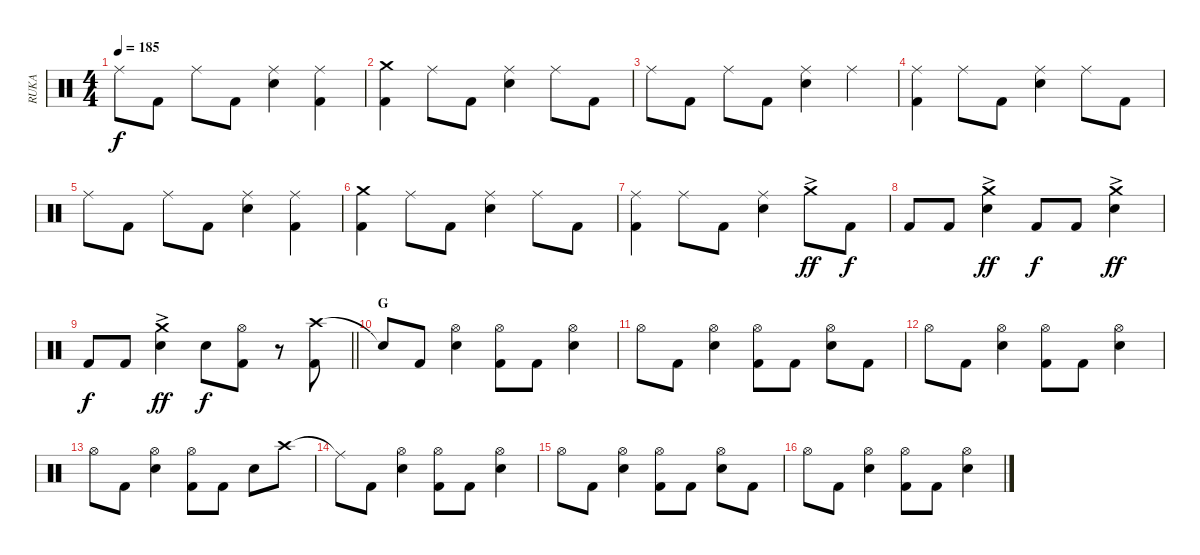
\track ("RUKA" "RUKA") {instrument percussion}
\staff {score}
\articulation defaults
\ts (4 4)
\tempo 185
\clef neutral
\ks c "Ride (middle)".8{dy f} "Kick (hit) 2".8 "Ride (middle)".8 "Kick (hit) 2".8
("Ride (middle)" "Electric Snare (hit)").4 ("Ride (middle)" "Kick (hit) 2").4 |
("Crash medium (hit)" "Kick (hit) 2").4 "Ride (middle)".8 "Kick (hit) 2".8 ("Ride (middle)" "Electric Snare (hit)").4 "Ride (middle)".8 "Kick (hit) 2".8 |
"Ride (middle)".8 "Kick (hit) 2".8 "Ride (middle)".8 "Kick (hit) 2".8 ("Ride (middle)" "Electric Snare (hit)").4 "Ride (middle)".4 |
("Ride (middle)" "Kick (hit) 2").4 "Ride (middle)".8 "Kick (hit) 2".8 ("Ride (middle)" "Electric Snare (hit)").4 "Ride (middle)".8 "Kick (hit) 2".8 |
"Ride (middle)".8 "Kick (hit) 2".8 "Ride (middle)".8 "Kick (hit) 2".8 ("Ride (middle)" "Electric Snare (hit)").4 ("Ride (middle)" "Kick (hit) 2").4 |
("Crash medium (hit)" "Kick (hit) 2").4 "Ride (middle)".8 "Kick (hit) 2".8 ("Ride (middle)" "Electric Snare (hit)").4 "Ride (middle)".8 "Kick (hit) 2".8 |
("Ride (middle)" "Kick (hit) 2").4 "Ride (middle)".8 "Kick (hit) 2".8 ("Ride (middle)" "Electric Snare (hit)").4 "Crash medium (hit)"{ac}.8{dy ff} "Kick (hit) 2".8{dy f} |
"Kick (hit) 2".8 "Kick (hit) 2".8 ("Crash medium (hit)"{ac} "Electric Snare (hit)").4{dy ff} "Kick (hit) 2".8{dy f} "Kick (hit) 2".8 ("Crash medium (hit)"{ac} "Electric Snare (hit)").4{dy ff} |
\barLineRight lightlight "Kick (hit) 2".8{dy f} "Kick (hit) 2".8
("Crash medium (hit)"{ac} "Electric Snare (hit)").4{dy ff} "Electric Snare (hit)".8{dy f} ("Hi-Hat (open)" "Kick (hit) 2").8 r.8 ("Crash high (hit)" "Kick (hit) 2").8 |
\section ("" "G")
"Snare (hit)"{t}.8 "Kick (hit) 2".8 ("Hi-Hat (open)" "Electric Snare (hit)").4 ("Hi-Hat (open)" "Kick (hit) 2").8 "Kick (hit) 2".8 ("Hi-Hat (open)" "Electric Snare (hit)").4 |
"Hi-Hat (open)".8 "Kick (hit) 2".8 ("Hi-Hat (open)" "Electric Snare (hit)").4 ("Hi-Hat (open)" "Kick (hit) 2").8 "Kick (hit) 2".8 ("Hi-Hat (open)" "Electric Snare (hit)").8 "Kick (hit) 2".8 |
"Hi-Hat (open)".8 "Kick (hit) 2".8 ("Hi-Hat (open)" "Electric Snare (hit)").4 ("Hi-Hat (open)" "Kick (hit) 2").8 "Kick (hit) 2".8 ("Hi-Hat (open)" "Electric Snare (hit)").4 |
"Hi-Hat (open)".8 "Kick (hit) 2".8 ("Hi-Hat (open)" "Electric Snare (hit)").4 ("Hi-Hat (open)" "Kick (hit) 2").8 "Kick (hit) 2".8 "Electric Snare (hit)".8 "Crash high (hit)".8 |
"Ride (middle)"{t}.8 "Kick (hit) 2".8 ("Hi-Hat (open)" "Electric Snare (hit)").4 ("Hi-Hat (open)" "Kick (hit) 2").8 "Kick (hit) 2".8 ("Hi-Hat (open)" "Electric Snare (hit)").4 |
"Hi-Hat (open)".8 "Kick (hit) 2".8 ("Hi-Hat (open)" "Electric Snare (hit)").4 ("Hi-Hat (open)" "Kick (hit) 2").8 "Kick (hit) 2".8 ("Hi-Hat (open)" "Electric Snare (hit)").8 "Kick (hit) 2".8 |
"Hi-Hat (open)".8 "Kick (hit) 2".8 ("Hi-Hat (open)" "Electric Snare (hit)").4 ("Hi-Hat (open)" "Kick (hit) 2").8 "Kick (hit) 2".8 ("Hi-Hat (open)" "Electric Snare (hit)").4
